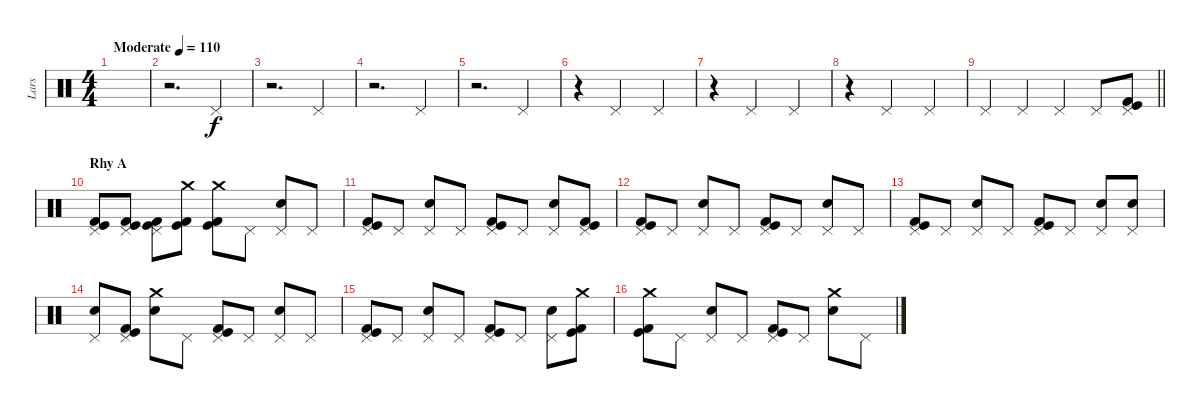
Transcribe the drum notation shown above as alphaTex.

\track ("Lars" "Lars") {instrument percussion}
\staff {score}
\articulation defaults
\ts (4 4)
\tempo (110 "Moderate")
\clef neutral
\ks c
|
r.2{d} "Pedal Hi-Hat (hit)".4 |
r.2{d} "Pedal Hi-Hat (hit)".4 |
r.2{d} "Pedal Hi-Hat (hit)".4 |
r.2{d} "Pedal Hi-Hat (hit)".4 |
r.4 "Pedal Hi-Hat (hit)".2 "Pedal Hi-Hat (hit)".4 |
r.4 "Pedal Hi-Hat (hit)".2 "Pedal Hi-Hat (hit)".4 |
r.4 "Pedal Hi-Hat (hit)".2 "Pedal Hi-Hat (hit)".4 |
\barLineRight lightlight "Pedal Hi-Hat (hit)".4 "Pedal Hi-Hat (hit)".4 "Pedal Hi-Hat (hit)".4 "Pedal Hi-Hat (hit)".8
("Pedal Hi-Hat (hit)" "Kick (hit)" "Kick (hit) 2").8 |
\section ("" "Rhy A")
("Pedal Hi-Hat (hit)" "Kick (hit)" "Kick (hit) 2").8 ("Pedal Hi-Hat (hit)" "Kick (hit)" "Kick (hit) 2").8 ("Pedal Hi-Hat (hit)" "Kick (hit)" "Kick (hit) 2").8 ("Crash medium (hit)" "Kick (hit)" "Kick (hit) 2").8 ("Crash medium (hit)" "Kick (hit)" "Kick (hit) 2").8 "Pedal Hi-Hat (hit)".8 ("Pedal Hi-Hat (hit)" "Electric Snare (hit)").8 "Pedal Hi-Hat (hit)".8 |
("Pedal Hi-Hat (hit)" "Kick (hit)" "Kick (hit) 2").8 "Pedal Hi-Hat (hit)".8 ("Pedal Hi-Hat (hit)" "Electric Snare (hit)").8 "Pedal Hi-Hat (hit)".8 ("Pedal Hi-Hat (hit)" "Kick (hit)" "Kick (hit) 2").8 "Pedal Hi-Hat (hit)".8 ("Pedal Hi-Hat (hit)" "Electric Snare (hit)").8 ("Pedal Hi-Hat (hit)" "Kick (hit)" "Kick (hit) 2").8 |
("Pedal Hi-Hat (hit)" "Kick (hit)" "Kick (hit) 2").8 "Pedal Hi-Hat (hit)".8 ("Pedal Hi-Hat (hit)" "Electric Snare (hit)").8 "Pedal Hi-Hat (hit)".8 ("Pedal Hi-Hat (hit)" "Kick (hit)" "Kick (hit) 2").8 "Pedal Hi-Hat (hit)".8 ("Pedal Hi-Hat (hit)" "Electric Snare (hit)").8 "Pedal Hi-Hat (hit)".8 |
("Pedal Hi-Hat (hit)" "Kick (hit)" "Kick (hit) 2").8 "Pedal Hi-Hat (hit)".8 ("Pedal Hi-Hat (hit)" "Electric Snare (hit)").8 "Pedal Hi-Hat (hit)".8 ("Pedal Hi-Hat (hit)" "Kick (hit)" "Kick (hit) 2").8 "Pedal Hi-Hat (hit)".8 ("Pedal Hi-Hat (hit)" "Electric Snare (hit)").8 ("Pedal Hi-Hat (hit)" "Electric Snare (hit)").8 |
("Pedal Hi-Hat (hit)" "Electric Snare (hit)").8 ("Pedal Hi-Hat (hit)" "Kick (hit)" "Kick (hit) 2").8 ("Crash medium (hit)" "Electric Snare (hit)").8 "Pedal Hi-Hat (hit)".8 ("Pedal Hi-Hat (hit)" "Kick (hit)" "Kick (hit) 2").8 "Pedal Hi-Hat (hit)".8 ("Pedal Hi-Hat (hit)" "Electric Snare (hit)").8 "Pedal Hi-Hat (hit)".8 |
("Pedal Hi-Hat (hit)" "Kick (hit)" "Kick (hit) 2").8 "Pedal Hi-Hat (hit)".8 ("Pedal Hi-Hat (hit)" "Electric Snare (hit)").8 "Pedal Hi-Hat (hit)".8 ("Pedal Hi-Hat (hit)" "Kick (hit)" "Kick (hit) 2").8 "Pedal Hi-Hat (hit)".8 ("Pedal Hi-Hat (hit)" "Electric Snare (hit)").8 ("Crash medium (hit)" "Kick (hit)" "Kick (hit) 2").8 |
("Crash medium (hit)" "Kick (hit)" "Kick (hit) 2").8 "Pedal Hi-Hat (hit)".8 ("Pedal Hi-Hat (hit)" "Electric Snare (hit)").8 "Pedal Hi-Hat (hit)".8 ("Pedal Hi-Hat (hit)" "Kick (hit)" "Kick (hit) 2").8 "Pedal Hi-Hat (hit)".8 ("Crash medium (hit)" "Electric Snare (hit)").8 "Pedal Hi-Hat (hit)".8
